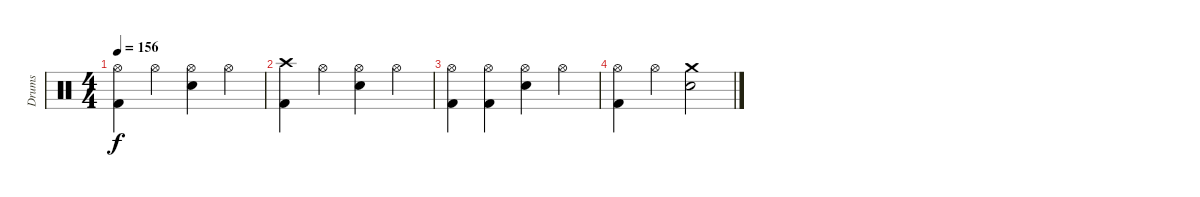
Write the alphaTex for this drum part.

\track ("Drums" "Drums") {instrument percussion}
\staff {score}
\articulation defaults
\ts (4 4)
\tempo 156
\clef neutral
\ks c
("Hi-Hat (open)" "Kick (hit) 2").4{dy f} "Hi-Hat (open)".4 ("Hi-Hat (open)" "Electric Snare (hit)").4 "Hi-Hat (open)".4 |
("Crash high (hit)" "Kick (hit) 2").4 "Hi-Hat (open)".4 ("Hi-Hat (open)" "Electric Snare (hit)").4 "Hi-Hat (open)".4 |
("Hi-Hat (open)" "Kick (hit) 2").4 ("Hi-Hat (open)" "Kick (hit) 2").4 ("Hi-Hat (open)" "Electric Snare (hit)").4 "Hi-Hat (open)".4 |
("Hi-Hat (open)" "Kick (hit) 2").4 "Hi-Hat (open)".4 ("Crash medium (hit)" "Electric Snare (hit)").2
